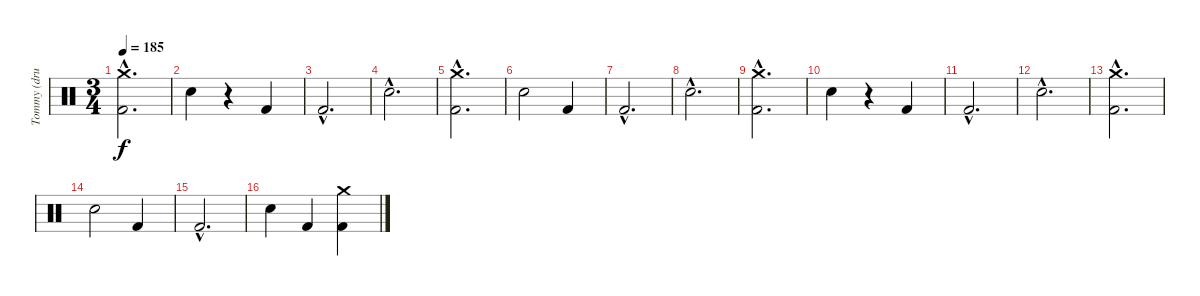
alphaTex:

\track ("Tommy (drums)" "Tommy (dru") {instrument percussion}
\staff {score}
\articulation defaults
\ts (3 4)
\tempo 185
\clef neutral
\ks c
("Crash medium (hit)"{hac} "Kick (hit) 2"{hac}).2{d dy f} |
"Electric Snare (hit)".4 r.4 "Kick (hit) 2".4 |
"Kick (hit) 2"{hac}.2{d} |
"Electric Snare (hit)"{hac}.2{d} |
("Crash medium (hit)"{hac} "Kick (hit) 2"{hac}).2{d} |
"Electric Snare (hit)".2 "Kick (hit) 2".4 |
"Kick (hit) 2"{hac}.2{d} |
"Electric Snare (hit)"{hac}.2{d} |
("Crash medium (hit)"{hac} "Kick (hit) 2"{hac}).2{d} |
"Electric Snare (hit)".4 r.4 "Kick (hit) 2".4 |
"Kick (hit) 2"{hac}.2{d} |
"Electric Snare (hit)"{hac}.2{d} |
("Crash medium (hit)"{hac} "Kick (hit) 2"{hac}).2{d} |
"Electric Snare (hit)".2 "Kick (hit) 2".4 |
"Kick (hit) 2"{hac}.2{d} |
"Electric Snare (hit)".4 "Kick (hit) 2".4 ("Crash medium (hit)" "Kick (hit) 2").4
